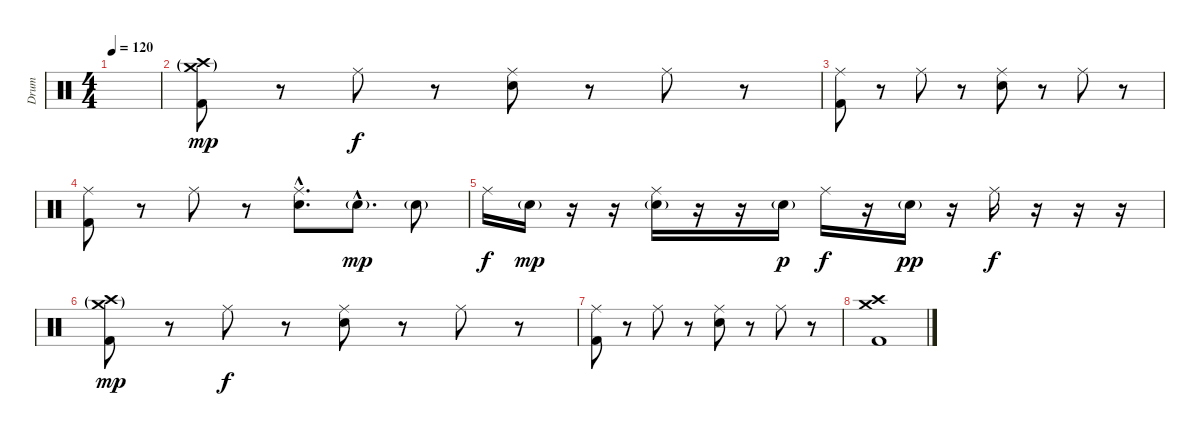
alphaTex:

\track ("Drum" "Drum") {instrument percussion}
\staff {score}
\articulation defaults
\ts (4 4)
\tempo 120
\clef neutral
\ks c
|
("Crash high (hit)"{g} "Crash medium (hit)"{g} "Kick (hit) 2").8{dy mp} r.8 "Ride (middle)".8{dy f} r.8 ("Ride (middle)" "Electric Snare (hit)").8 r.8 "Ride (middle)".8 r.8 |
("Ride (middle)" "Kick (hit) 2").8 r.8 "Ride (middle)".8 r.8 ("Ride (middle)" "Electric Snare (hit)").8 r.8 "Ride (middle)".8 r.8 |
("Ride (middle)" "Kick (hit) 2").8 r.8 "Ride (middle)".8 r.8 ("Ride (middle)"{hac} "Electric Snare (hit)"{hac}).8{d} "Electric Snare (hit)"{g hac}.8{d dy mp} "Electric Snare (hit)"{g}.8 |
"Ride (middle)".16{dy f} "Electric Snare (hit)"{g}.16{dy mp} r.16 r.16 ("Ride (middle)" "Electric Snare (hit)"{g}).16 r.16 r.16 "Electric Snare (hit)"{g}.16{dy p} "Ride (middle)".16{dy f} r.16 "Electric Snare (hit)"{g}.16{dy pp} r.16 "Ride (middle)".16{dy f} r.16 r.16 r.16 |
("Crash high (hit)"{g} "Crash medium (hit)"{g} "Kick (hit) 2").8{dy mp} r.8 "Ride (middle)".8{dy f} r.8 ("Ride (middle)" "Electric Snare (hit)").8 r.8 "Ride (middle)".8 r.8 |
("Ride (middle)" "Kick (hit) 2").8 r.8 "Ride (middle)".8 r.8 ("Ride (middle)" "Electric Snare (hit)").8 r.8 "Ride (middle)".8 r.8 |
("Crash high (hit)" "Crash medium (hit)" "Kick (hit) 2").1
